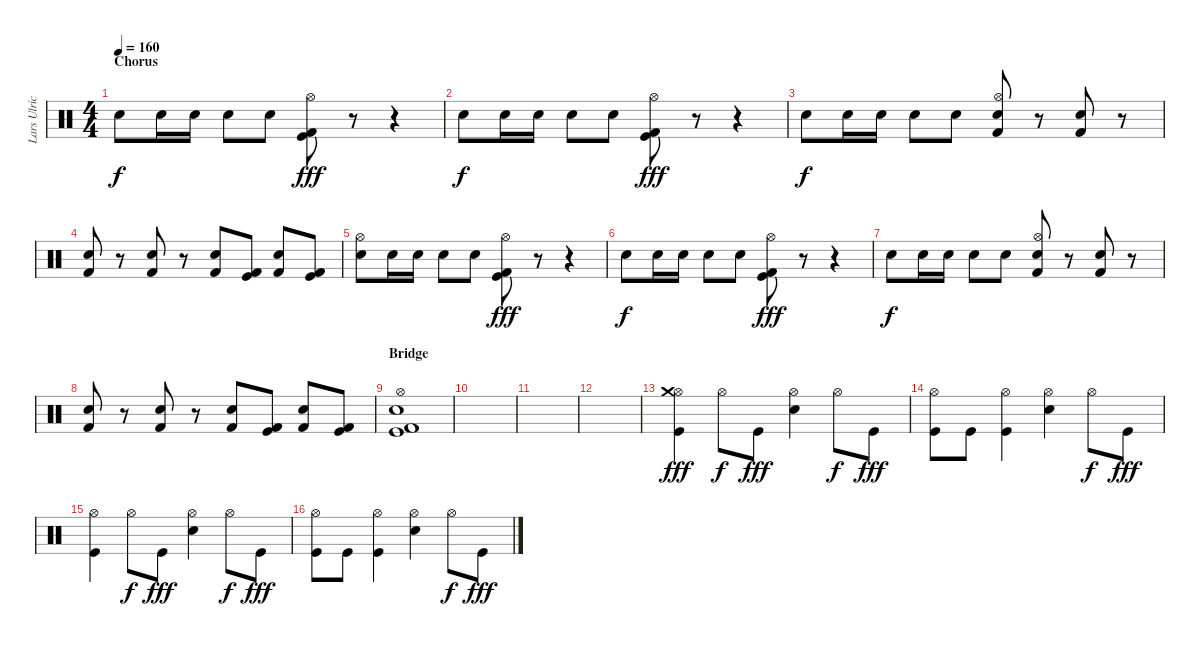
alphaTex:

\track ("Lars Ulrich" "Lars Ulric") {instrument percussion}
\staff {score}
\articulation defaults
\ts (4 4)
\section ("" "Chorus")
\tempo 160
\clef neutral
\ks c "Electric Snare (hit)".8{dy f} "Electric Snare (hit)".16 "Electric Snare (hit)".16 "Electric Snare (hit)".8 "Electric Snare (hit)".8
("Hi-Hat (open)" "Kick (hit)" "Kick (hit) 2").8{dy fff} r.8 r.4 |
"Electric Snare (hit)".8{dy f} "Electric Snare (hit)".16 "Electric Snare (hit)".16 "Electric Snare (hit)".8 "Electric Snare (hit)".8 ("Hi-Hat (open)" "Kick (hit)" "Kick (hit) 2").8{dy fff} r.8 r.4 |
"Electric Snare (hit)".8{dy f} "Electric Snare (hit)".16 "Electric Snare (hit)".16 "Electric Snare (hit)".8 "Electric Snare (hit)".8 ("Hi-Hat (open)" "Electric Snare (hit)" "Kick (hit) 2").8 r.8 ("Electric Snare (hit)" "Kick (hit) 2").8 r.8 |
("Electric Snare (hit)" "Kick (hit) 2").8 r.8 ("Electric Snare (hit)" "Kick (hit) 2").8 r.8 ("Electric Snare (hit)" "Kick (hit) 2").8 ("Kick (hit) 2" "Kick (hit)").8 ("Electric Snare (hit)" "Kick (hit) 2").8 ("Kick (hit) 2" "Kick (hit)").8 |
("Hi-Hat (open)" "Electric Snare (hit)").8 "Electric Snare (hit)".16 "Electric Snare (hit)".16 "Electric Snare (hit)".8 "Electric Snare (hit)".8 ("Hi-Hat (open)" "Kick (hit)" "Kick (hit) 2").8{dy fff} r.8 r.4 |
"Electric Snare (hit)".8{dy f} "Electric Snare (hit)".16 "Electric Snare (hit)".16 "Electric Snare (hit)".8 "Electric Snare (hit)".8 ("Hi-Hat (open)" "Kick (hit)" "Kick (hit) 2").8{dy fff} r.8 r.4 |
"Electric Snare (hit)".8{dy f} "Electric Snare (hit)".16 "Electric Snare (hit)".16 "Electric Snare (hit)".8 "Electric Snare (hit)".8 ("Hi-Hat (open)" "Electric Snare (hit)" "Kick (hit) 2").8 r.8 ("Electric Snare (hit)" "Kick (hit) 2").8 r.8 |
("Electric Snare (hit)" "Kick (hit) 2").8 r.8 ("Electric Snare (hit)" "Kick (hit) 2").8 r.8 ("Electric Snare (hit)" "Kick (hit) 2").8 ("Kick (hit) 2" "Kick (hit)").8 ("Electric Snare (hit)" "Kick (hit) 2").8 ("Kick (hit) 2" "Kick (hit)").8 |
\section ("" "Bridge")
("Hi-Hat (open)" "Electric Snare (hit)" "Kick (hit) 2" "Kick (hit)").1 |
|
|
|
("Hi-Hat (open)" "Crash medium (hit)" "Kick (hit)").4{dy fff} "Hi-Hat (open)".8{dy f} "Kick (hit)".8{dy fff} ("Hi-Hat (open)" "Electric Snare (hit)").4 "Hi-Hat (open)".8{dy f} "Kick (hit)".8{dy fff} |
("Hi-Hat (open)" "Kick (hit)").8 "Kick (hit)".8 ("Hi-Hat (open)" "Kick (hit)").4 ("Hi-Hat (open)" "Electric Snare (hit)").4 "Hi-Hat (open)".8{dy f} "Kick (hit)".8{dy fff} |
("Hi-Hat (open)" "Kick (hit)").4 "Hi-Hat (open)".8{dy f} "Kick (hit)".8{dy fff} ("Hi-Hat (open)" "Electric Snare (hit)").4 "Hi-Hat (open)".8{dy f} "Kick (hit)".8{dy fff} |
("Hi-Hat (open)" "Kick (hit)").8 "Kick (hit)".8 ("Hi-Hat (open)" "Kick (hit)").4 ("Hi-Hat (open)" "Electric Snare (hit)").4 "Hi-Hat (open)".8{dy f} "Kick (hit)".8{dy fff}
